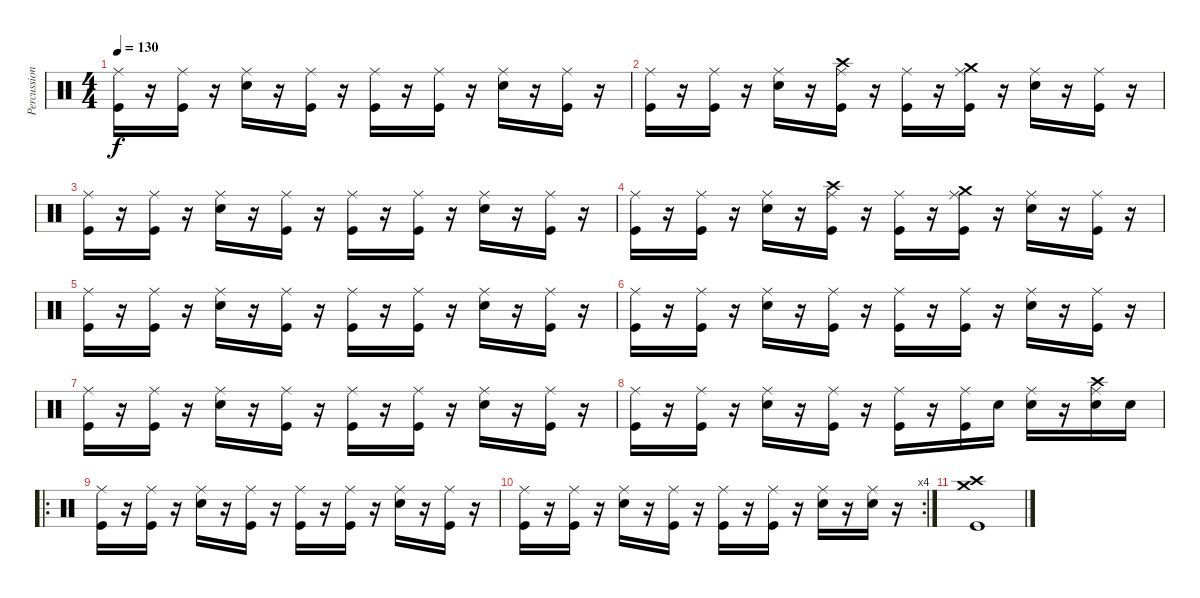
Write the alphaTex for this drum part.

\track ("Percussion" "Percussion") {instrument percussion}
\staff {score}
\articulation defaults
\ts (4 4)
\tempo 130
\clef neutral
\ks c
("Kick (hit)" "Ride (middle)").16{dy f} r.16 ("Kick (hit)" "Ride (middle)").16 r.16 ("Snare (hit) 2" "Ride (middle)").16 r.16 ("Kick (hit)" "Ride (middle)").16 r.16 ("Kick (hit)" "Ride (middle)").16 r.16 ("Kick (hit)" "Ride (middle)").16 r.16 ("Snare (hit) 2" "Ride (middle)").16 r.16 ("Kick (hit)" "Ride (middle)").16 r.16 |
("Kick (hit)" "Ride (middle)").16 r.16 ("Kick (hit)" "Ride (middle)").16 r.16 ("Snare (hit) 2" "Ride (middle)").16 r.16 ("Kick (hit)" "Ride (middle)" "Crash high (hit)").16 r.16 ("Kick (hit)" "Ride (middle)").16 r.16 ("Kick (hit)" "Ride (middle)" "Crash medium (hit)").16 r.16 ("Snare (hit) 2" "Ride (middle)").16 r.16 ("Kick (hit)" "Ride (middle)").16 r.16 |
("Kick (hit)" "Ride (middle)").16 r.16 ("Kick (hit)" "Ride (middle)").16 r.16 ("Snare (hit) 2" "Ride (middle)").16 r.16 ("Kick (hit)" "Ride (middle)").16 r.16 ("Kick (hit)" "Ride (middle)").16 r.16 ("Kick (hit)" "Ride (middle)").16 r.16 ("Snare (hit) 2" "Ride (middle)").16 r.16 ("Kick (hit)" "Ride (middle)").16 r.16 |
("Kick (hit)" "Ride (middle)").16 r.16 ("Kick (hit)" "Ride (middle)").16 r.16 ("Snare (hit) 2" "Ride (middle)").16 r.16 ("Kick (hit)" "Ride (middle)" "Crash high (hit)").16 r.16 ("Kick (hit)" "Ride (middle)").16 r.16 ("Kick (hit)" "Ride (middle)" "Crash medium (hit)").16 r.16 ("Snare (hit) 2" "Ride (middle)").16 r.16 ("Kick (hit)" "Ride (middle)").16 r.16 |
("Kick (hit)" "Ride (middle)").16 r.16 ("Kick (hit)" "Ride (middle)").16 r.16 ("Snare (hit) 2" "Ride (middle)").16 r.16 ("Kick (hit)" "Ride (middle)").16 r.16 ("Kick (hit)" "Ride (middle)").16 r.16 ("Kick (hit)" "Ride (middle)").16 r.16 ("Snare (hit) 2" "Ride (middle)").16 r.16 ("Kick (hit)" "Ride (middle)").16 r.16 |
("Kick (hit)" "Ride (middle)").16 r.16 ("Kick (hit)" "Ride (middle)").16 r.16 ("Snare (hit) 2" "Ride (middle)").16 r.16 ("Kick (hit)" "Ride (middle)").16 r.16 ("Kick (hit)" "Ride (middle)").16 r.16 ("Kick (hit)" "Ride (middle)").16 r.16 ("Snare (hit) 2" "Ride (middle)").16 r.16 ("Kick (hit)" "Ride (middle)").16 r.16 |
("Kick (hit)" "Ride (middle)").16 r.16 ("Kick (hit)" "Ride (middle)").16 r.16 ("Snare (hit) 2" "Ride (middle)").16 r.16 ("Kick (hit)" "Ride (middle)").16 r.16 ("Kick (hit)" "Ride (middle)").16 r.16 ("Kick (hit)" "Ride (middle)").16 r.16 ("Snare (hit) 2" "Ride (middle)").16 r.16 ("Kick (hit)" "Ride (middle)").16 r.16 |
("Kick (hit)" "Ride (middle)").16 r.16 ("Kick (hit)" "Ride (middle)").16 r.16 ("Snare (hit) 2" "Ride (middle)").16 r.16 ("Kick (hit)" "Ride (middle)").16 r.16 ("Kick (hit)" "Ride (middle)").16 r.16 ("Kick (hit)" "Ride (middle)").16 "Snare (hit) 2".16 ("Snare (hit) 2" "Ride (middle)").16 r.16 ("Snare (hit) 2" "Ride (middle)" "Crash high (hit)").16 "Snare (hit) 2".16 |
\ro
("Kick (hit)" "Ride (middle)").16 r.16 ("Kick (hit)" "Ride (middle)").16 r.16 ("Snare (hit) 2" "Ride (middle)").16 r.16 ("Kick (hit)" "Ride (middle)").16 r.16 ("Kick (hit)" "Ride (middle)").16 r.16 ("Kick (hit)" "Ride (middle)").16 r.16 ("Snare (hit) 2" "Ride (middle)").16 r.16 ("Kick (hit)" "Ride (middle)").16 r.16 |
\rc 4
("Kick (hit)" "Ride (middle)").16 r.16 ("Kick (hit)" "Ride (middle)").16 r.16 ("Snare (hit) 2" "Ride (middle)").16 r.16 ("Kick (hit)" "Ride (middle)").16 r.16 ("Kick (hit)" "Ride (middle)").16 r.16 ("Kick (hit)" "Ride (middle)").16 r.16 ("Snare (hit) 2" "Ride (middle)").16 r.16 ("Snare (hit) 2" "Ride (middle)").16 r.16 |
("Crash high (hit)" "Kick (hit)" "Crash medium (hit)").1
